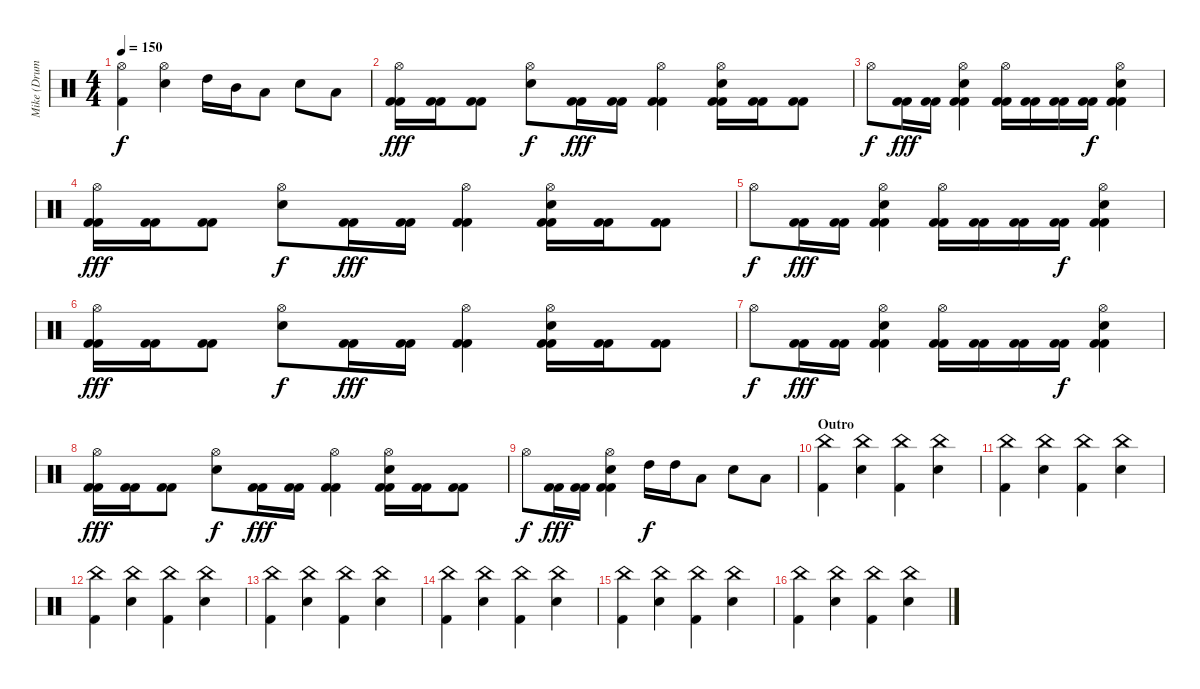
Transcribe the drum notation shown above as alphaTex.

\track ("Mike (Drums)" "Mike (Drum") {instrument percussion}
\staff {score}
\articulation defaults
\ts (4 4)
\tempo 150
\clef neutral
\ks c
("Hi-Hat (open)" "Kick (hit) 2").4{dy f} ("Hi-Hat (open)" "Snare (hit) 2").4 "High Tom (hit)".16 "Mid Tom (hit)".16 "Low Tom (hit)".8 "Snare (hit) 2".8 "Low Tom (hit)".8 |
("Hi-Hat (open)" "Kick (hit) 2" "Kick (hit) 2").16{dy fff} ("Kick (hit) 2" "Kick (hit) 2").16 ("Kick (hit) 2" "Kick (hit) 2").8 ("Hi-Hat (open)" "Snare (hit) 2").8{dy f} ("Kick (hit) 2" "Kick (hit) 2").16{dy fff} ("Kick (hit) 2" "Kick (hit) 2").16 ("Hi-Hat (open)" "Kick (hit) 2" "Kick (hit) 2").4 ("Hi-Hat (open)" "Snare (hit) 2" "Kick (hit) 2" "Kick (hit) 2").16 ("Kick (hit) 2" "Kick (hit) 2").16 ("Kick (hit) 2" "Kick (hit) 2").8 |
"Hi-Hat (open)".8{dy f} ("Kick (hit) 2" "Kick (hit) 2").16{dy fff} ("Kick (hit) 2" "Kick (hit) 2").16 ("Hi-Hat (open)" "Snare (hit) 2" "Kick (hit) 2" "Kick (hit) 2").4 ("Hi-Hat (open)" "Kick (hit) 2" "Kick (hit) 2").16 ("Kick (hit) 2" "Kick (hit) 2").16 ("Kick (hit) 2" "Kick (hit) 2").16 ("Kick (hit) 2" "Kick (hit) 2").16{dy f} ("Hi-Hat (open)" "Snare (hit) 2" "Kick (hit) 2" "Kick (hit) 2").4 |
("Hi-Hat (open)" "Kick (hit) 2" "Kick (hit) 2").16{dy fff} ("Kick (hit) 2" "Kick (hit) 2").16 ("Kick (hit) 2" "Kick (hit) 2").8 ("Hi-Hat (open)" "Snare (hit) 2").8{dy f} ("Kick (hit) 2" "Kick (hit) 2").16{dy fff} ("Kick (hit) 2" "Kick (hit) 2").16 ("Hi-Hat (open)" "Kick (hit) 2" "Kick (hit) 2").4 ("Hi-Hat (open)" "Snare (hit) 2" "Kick (hit) 2" "Kick (hit) 2").16 ("Kick (hit) 2" "Kick (hit) 2").16 ("Kick (hit) 2" "Kick (hit) 2").8 |
"Hi-Hat (open)".8{dy f} ("Kick (hit) 2" "Kick (hit) 2").16{dy fff} ("Kick (hit) 2" "Kick (hit) 2").16 ("Hi-Hat (open)" "Snare (hit) 2" "Kick (hit) 2" "Kick (hit) 2").4 ("Hi-Hat (open)" "Kick (hit) 2" "Kick (hit) 2").16 ("Kick (hit) 2" "Kick (hit) 2").16 ("Kick (hit) 2" "Kick (hit) 2").16 ("Kick (hit) 2" "Kick (hit) 2").16{dy f} ("Hi-Hat (open)" "Snare (hit) 2" "Kick (hit) 2" "Kick (hit) 2").4 |
("Hi-Hat (open)" "Kick (hit) 2" "Kick (hit) 2").16{dy fff} ("Kick (hit) 2" "Kick (hit) 2").16 ("Kick (hit) 2" "Kick (hit) 2").8 ("Hi-Hat (open)" "Snare (hit) 2").8{dy f} ("Kick (hit) 2" "Kick (hit) 2").16{dy fff} ("Kick (hit) 2" "Kick (hit) 2").16 ("Hi-Hat (open)" "Kick (hit) 2" "Kick (hit) 2").4 ("Hi-Hat (open)" "Snare (hit) 2" "Kick (hit) 2" "Kick (hit) 2").16 ("Kick (hit) 2" "Kick (hit) 2").16 ("Kick (hit) 2" "Kick (hit) 2").8 |
"Hi-Hat (open)".8{dy f} ("Kick (hit) 2" "Kick (hit) 2").16{dy fff} ("Kick (hit) 2" "Kick (hit) 2").16 ("Hi-Hat (open)" "Snare (hit) 2" "Kick (hit) 2" "Kick (hit) 2").4 ("Hi-Hat (open)" "Kick (hit) 2" "Kick (hit) 2").16 ("Kick (hit) 2" "Kick (hit) 2").16 ("Kick (hit) 2" "Kick (hit) 2").16 ("Kick (hit) 2" "Kick (hit) 2").16{dy f} ("Hi-Hat (open)" "Snare (hit) 2" "Kick (hit) 2" "Kick (hit) 2").4 |
("Hi-Hat (open)" "Kick (hit) 2" "Kick (hit) 2").16{dy fff} ("Kick (hit) 2" "Kick (hit) 2").16 ("Kick (hit) 2" "Kick (hit) 2").8 ("Hi-Hat (open)" "Snare (hit) 2").8{dy f} ("Kick (hit) 2" "Kick (hit) 2").16{dy fff} ("Kick (hit) 2" "Kick (hit) 2").16 ("Hi-Hat (open)" "Kick (hit) 2" "Kick (hit) 2").4 ("Hi-Hat (open)" "Snare (hit) 2" "Kick (hit) 2" "Kick (hit) 2").16 ("Kick (hit) 2" "Kick (hit) 2").16 ("Kick (hit) 2" "Kick (hit) 2").8 |
"Hi-Hat (open)".8{dy f} ("Kick (hit) 2" "Kick (hit) 2").16{dy fff} ("Kick (hit) 2" "Kick (hit) 2").16 ("Hi-Hat (open)" "Snare (hit) 2" "Kick (hit) 2" "Kick (hit) 2").4 "High Tom (hit)".16{dy f} "High Tom (hit)".16 "Low Tom (hit)".8 "Snare (hit) 2".8 "Low Tom (hit)".8 |
\section ("" "Outro")
("China (hit)" "Kick (hit) 2").4 ("China (hit)" "Snare (hit) 2").4 ("China (hit)" "Kick (hit) 2").4 ("China (hit)" "Snare (hit) 2").4 |
("China (hit)" "Kick (hit) 2").4 ("China (hit)" "Snare (hit) 2").4 ("China (hit)" "Kick (hit) 2").4 ("China (hit)" "Snare (hit) 2").4 |
("China (hit)" "Kick (hit) 2").4 ("China (hit)" "Snare (hit) 2").4 ("China (hit)" "Kick (hit) 2").4 ("China (hit)" "Snare (hit) 2").4 |
("China (hit)" "Kick (hit) 2").4 ("China (hit)" "Snare (hit) 2").4 ("China (hit)" "Kick (hit) 2").4 ("China (hit)" "Snare (hit) 2").4 |
("China (hit)" "Kick (hit) 2").4 ("China (hit)" "Snare (hit) 2").4 ("China (hit)" "Kick (hit) 2").4 ("China (hit)" "Snare (hit) 2").4 |
("China (hit)" "Kick (hit) 2").4 ("China (hit)" "Snare (hit) 2").4 ("China (hit)" "Kick (hit) 2").4 ("China (hit)" "Snare (hit) 2").4 |
("China (hit)" "Kick (hit) 2").4 ("China (hit)" "Snare (hit) 2").4 ("China (hit)" "Kick (hit) 2").4 ("China (hit)" "Snare (hit) 2").4
